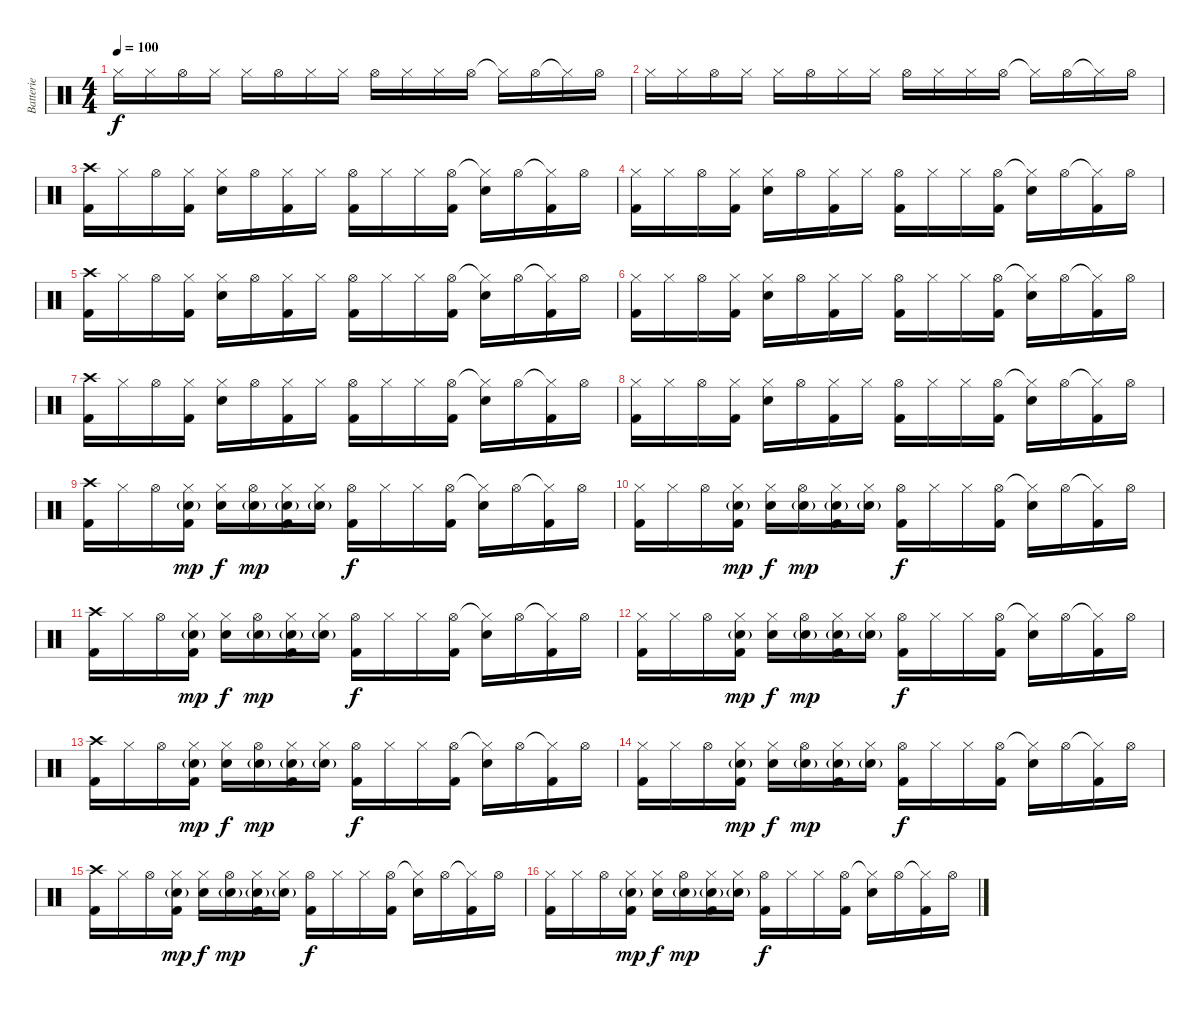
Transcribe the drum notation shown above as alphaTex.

\track ("Batterie" "Batterie") {instrument percussion}
\staff {score}
\articulation defaults
\ts (4 4)
\tempo 100
\clef neutral
\ks c "Hi-Hat (closed)".16{dy f} "Hi-Hat (closed)".16 "Hi-Hat (open)".16 "Hi-Hat (closed)".16 "Hi-Hat (closed)".16 "Hi-Hat (open)".16 "Hi-Hat (closed)".16 "Hi-Hat (closed)".16 "Hi-Hat (open)".16 "Hi-Hat (closed)".16 "Hi-Hat (closed)".16 "Hi-Hat (open)".16 "Hi-Hat (closed)"{t}.16 "Hi-Hat (open)".16 "Hi-Hat (closed)"{t}.16 "Hi-Hat (open)".16
|
"Hi-Hat (closed)".16 "Hi-Hat (closed)".16 "Hi-Hat (open)".16 "Hi-Hat (closed)".16 "Hi-Hat (closed)".16 "Hi-Hat (open)".16 "Hi-Hat (closed)".16 "Hi-Hat (closed)".16 "Hi-Hat (open)".16 "Hi-Hat (closed)".16 "Hi-Hat (closed)".16 "Hi-Hat (open)".16 "Hi-Hat (closed)"{t}.16 "Hi-Hat (open)".16 "Hi-Hat (closed)"{t}.16 "Hi-Hat (open)".16 |
("Crash high (hit)" "Kick (hit) 2").16 "Hi-Hat (closed)".16 "Hi-Hat (open)".16 ("Hi-Hat (closed)" "Kick (hit) 2").16 ("Hi-Hat (closed)" "Snare (hit) 2").16 "Hi-Hat (open)".16 ("Hi-Hat (closed)" "Kick (hit) 2").16 "Hi-Hat (closed)".16 ("Hi-Hat (open)" "Kick (hit) 2").16 "Hi-Hat (closed)".16 "Hi-Hat (closed)".16 ("Hi-Hat (open)" "Kick (hit) 2").16 ("Hi-Hat (closed)"{t} "Snare (hit) 2").16 "Hi-Hat (open)".16 ("Hi-Hat (closed)"{t} "Kick (hit) 2").16 "Hi-Hat (open)".16 |
("Hi-Hat (closed)" "Kick (hit) 2").16 "Hi-Hat (closed)".16 "Hi-Hat (open)".16 ("Hi-Hat (closed)" "Kick (hit) 2").16 ("Hi-Hat (closed)" "Snare (hit) 2").16 "Hi-Hat (open)".16 ("Hi-Hat (closed)" "Kick (hit) 2").16 "Hi-Hat (closed)".16 ("Hi-Hat (open)" "Kick (hit) 2").16 "Hi-Hat (closed)".16 "Hi-Hat (closed)".16 ("Hi-Hat (open)" "Kick (hit) 2").16 ("Hi-Hat (closed)"{t} "Snare (hit) 2").16 "Hi-Hat (open)".16 ("Hi-Hat (closed)"{t} "Kick (hit) 2").16 "Hi-Hat (open)".16 |
("Crash high (hit)" "Kick (hit) 2").16 "Hi-Hat (closed)".16 "Hi-Hat (open)".16 ("Hi-Hat (closed)" "Kick (hit) 2").16 ("Hi-Hat (closed)" "Snare (hit) 2").16 "Hi-Hat (open)".16 ("Hi-Hat (closed)" "Kick (hit) 2").16 "Hi-Hat (closed)".16 ("Hi-Hat (open)" "Kick (hit) 2").16 "Hi-Hat (closed)".16 "Hi-Hat (closed)".16 ("Hi-Hat (open)" "Kick (hit) 2").16 ("Hi-Hat (closed)"{t} "Snare (hit) 2").16 "Hi-Hat (open)".16 ("Hi-Hat (closed)"{t} "Kick (hit) 2").16 "Hi-Hat (open)".16 |
("Hi-Hat (closed)" "Kick (hit) 2").16 "Hi-Hat (closed)".16 "Hi-Hat (open)".16 ("Hi-Hat (closed)" "Kick (hit) 2").16 ("Hi-Hat (closed)" "Snare (hit) 2").16 "Hi-Hat (open)".16 ("Hi-Hat (closed)" "Kick (hit) 2").16 "Hi-Hat (closed)".16 ("Hi-Hat (open)" "Kick (hit) 2").16 "Hi-Hat (closed)".16 "Hi-Hat (closed)".16 ("Hi-Hat (open)" "Kick (hit) 2").16 ("Hi-Hat (closed)"{t} "Snare (hit) 2").16 "Hi-Hat (open)".16 ("Hi-Hat (closed)"{t} "Kick (hit) 2").16 "Hi-Hat (open)".16 |
("Crash high (hit)" "Kick (hit) 2").16 "Hi-Hat (closed)".16 "Hi-Hat (open)".16 ("Hi-Hat (closed)" "Kick (hit) 2").16 ("Hi-Hat (closed)" "Snare (hit) 2").16 "Hi-Hat (open)".16 ("Hi-Hat (closed)" "Kick (hit) 2").16 "Hi-Hat (closed)".16 ("Hi-Hat (open)" "Kick (hit) 2").16 "Hi-Hat (closed)".16 "Hi-Hat (closed)".16 ("Hi-Hat (open)" "Kick (hit) 2").16 ("Hi-Hat (closed)"{t} "Snare (hit) 2").16 "Hi-Hat (open)".16 ("Hi-Hat (closed)"{t} "Kick (hit) 2").16 "Hi-Hat (open)".16 |
("Hi-Hat (closed)" "Kick (hit) 2").16 "Hi-Hat (closed)".16 "Hi-Hat (open)".16 ("Hi-Hat (closed)" "Kick (hit) 2").16 ("Hi-Hat (closed)" "Snare (hit) 2").16 "Hi-Hat (open)".16 ("Hi-Hat (closed)" "Kick (hit) 2").16 "Hi-Hat (closed)".16 ("Hi-Hat (open)" "Kick (hit) 2").16 "Hi-Hat (closed)".16 "Hi-Hat (closed)".16 ("Hi-Hat (open)" "Kick (hit) 2").16 ("Hi-Hat (closed)"{t} "Snare (hit) 2").16 "Hi-Hat (open)".16 ("Hi-Hat (closed)"{t} "Kick (hit) 2").16 "Hi-Hat (open)".16 |
("Crash high (hit)" "Kick (hit) 2").16 "Hi-Hat (closed)".16 "Hi-Hat (open)".16 ("Hi-Hat (closed)" "Snare (hit) 2"{g} "Kick (hit) 2").16{dy mp} ("Hi-Hat (closed)" "Snare (hit) 2").16{dy f} ("Hi-Hat (open)" "Snare (hit) 2"{g}).16{dy mp} ("Hi-Hat (closed)" "Snare (hit) 2"{g} "Kick (hit) 2").16 ("Hi-Hat (closed)" "Snare (hit) 2"{g}).16 ("Hi-Hat (open)" "Kick (hit) 2").16{dy f} "Hi-Hat (closed)".16 "Hi-Hat (closed)".16 ("Hi-Hat (open)" "Kick (hit) 2").16 ("Hi-Hat (closed)"{t} "Snare (hit) 2").16 "Hi-Hat (open)".16 ("Hi-Hat (closed)"{t} "Kick (hit) 2").16 "Hi-Hat (open)".16 |
("Hi-Hat (closed)" "Kick (hit) 2").16 "Hi-Hat (closed)".16 "Hi-Hat (open)".16 ("Hi-Hat (closed)" "Snare (hit) 2"{g} "Kick (hit) 2").16{dy mp} ("Hi-Hat (closed)" "Snare (hit) 2").16{dy f} ("Hi-Hat (open)" "Snare (hit) 2"{g}).16{dy mp} ("Hi-Hat (closed)" "Snare (hit) 2"{g} "Kick (hit) 2").16 ("Hi-Hat (closed)" "Snare (hit) 2"{g}).16 ("Hi-Hat (open)" "Kick (hit) 2").16{dy f} "Hi-Hat (closed)".16 "Hi-Hat (closed)".16 ("Hi-Hat (open)" "Kick (hit) 2").16 ("Hi-Hat (closed)"{t} "Snare (hit) 2").16 "Hi-Hat (open)".16 ("Hi-Hat (closed)"{t} "Kick (hit) 2").16 "Hi-Hat (open)".16 |
("Crash high (hit)" "Kick (hit) 2").16 "Hi-Hat (closed)".16 "Hi-Hat (open)".16 ("Hi-Hat (closed)" "Snare (hit) 2"{g} "Kick (hit) 2").16{dy mp} ("Hi-Hat (closed)" "Snare (hit) 2").16{dy f} ("Hi-Hat (open)" "Snare (hit) 2"{g}).16{dy mp} ("Hi-Hat (closed)" "Snare (hit) 2"{g} "Kick (hit) 2").16 ("Hi-Hat (closed)" "Snare (hit) 2"{g}).16 ("Hi-Hat (open)" "Kick (hit) 2").16{dy f} "Hi-Hat (closed)".16 "Hi-Hat (closed)".16 ("Hi-Hat (open)" "Kick (hit) 2").16 ("Hi-Hat (closed)"{t} "Snare (hit) 2").16 "Hi-Hat (open)".16 ("Hi-Hat (closed)"{t} "Kick (hit) 2").16 "Hi-Hat (open)".16 |
("Hi-Hat (closed)" "Kick (hit) 2").16 "Hi-Hat (closed)".16 "Hi-Hat (open)".16 ("Hi-Hat (closed)" "Snare (hit) 2"{g} "Kick (hit) 2").16{dy mp} ("Hi-Hat (closed)" "Snare (hit) 2").16{dy f} ("Hi-Hat (open)" "Snare (hit) 2"{g}).16{dy mp} ("Hi-Hat (closed)" "Snare (hit) 2"{g} "Kick (hit) 2").16 ("Hi-Hat (closed)" "Snare (hit) 2"{g}).16 ("Hi-Hat (open)" "Kick (hit) 2").16{dy f} "Hi-Hat (closed)".16 "Hi-Hat (closed)".16 ("Hi-Hat (open)" "Kick (hit) 2").16 ("Hi-Hat (closed)"{t} "Snare (hit) 2").16 "Hi-Hat (open)".16 ("Hi-Hat (closed)"{t} "Kick (hit) 2").16 "Hi-Hat (open)".16 |
("Crash high (hit)" "Kick (hit) 2").16 "Hi-Hat (closed)".16 "Hi-Hat (open)".16 ("Hi-Hat (closed)" "Snare (hit) 2"{g} "Kick (hit) 2").16{dy mp} ("Hi-Hat (closed)" "Snare (hit) 2").16{dy f} ("Hi-Hat (open)" "Snare (hit) 2"{g}).16{dy mp} ("Hi-Hat (closed)" "Snare (hit) 2"{g} "Kick (hit) 2").16 ("Hi-Hat (closed)" "Snare (hit) 2"{g}).16 ("Hi-Hat (open)" "Kick (hit) 2").16{dy f} "Hi-Hat (closed)".16 "Hi-Hat (closed)".16 ("Hi-Hat (open)" "Kick (hit) 2").16 ("Hi-Hat (closed)"{t} "Snare (hit) 2").16 "Hi-Hat (open)".16 ("Hi-Hat (closed)"{t} "Kick (hit) 2").16 "Hi-Hat (open)".16 |
("Hi-Hat (closed)" "Kick (hit) 2").16 "Hi-Hat (closed)".16 "Hi-Hat (open)".16 ("Hi-Hat (closed)" "Snare (hit) 2"{g} "Kick (hit) 2").16{dy mp} ("Hi-Hat (closed)" "Snare (hit) 2").16{dy f} ("Hi-Hat (open)" "Snare (hit) 2"{g}).16{dy mp} ("Hi-Hat (closed)" "Snare (hit) 2"{g} "Kick (hit) 2").16 ("Hi-Hat (closed)" "Snare (hit) 2"{g}).16 ("Hi-Hat (open)" "Kick (hit) 2").16{dy f} "Hi-Hat (closed)".16 "Hi-Hat (closed)".16 ("Hi-Hat (open)" "Kick (hit) 2").16 ("Hi-Hat (closed)"{t} "Snare (hit) 2").16 "Hi-Hat (open)".16 ("Hi-Hat (closed)"{t} "Kick (hit) 2").16 "Hi-Hat (open)".16 |
("Crash high (hit)" "Kick (hit) 2").16 "Hi-Hat (closed)".16 "Hi-Hat (open)".16 ("Hi-Hat (closed)" "Snare (hit) 2"{g} "Kick (hit) 2").16{dy mp} ("Hi-Hat (closed)" "Snare (hit) 2").16{dy f} ("Hi-Hat (open)" "Snare (hit) 2"{g}).16{dy mp} ("Hi-Hat (closed)" "Snare (hit) 2"{g} "Kick (hit) 2").16 ("Hi-Hat (closed)" "Snare (hit) 2"{g}).16 ("Hi-Hat (open)" "Kick (hit) 2").16{dy f} "Hi-Hat (closed)".16 "Hi-Hat (closed)".16 ("Hi-Hat (open)" "Kick (hit) 2").16 ("Hi-Hat (closed)"{t} "Snare (hit) 2").16 "Hi-Hat (open)".16 ("Hi-Hat (closed)"{t} "Kick (hit) 2").16 "Hi-Hat (open)".16 |
("Hi-Hat (closed)" "Kick (hit) 2").16 "Hi-Hat (closed)".16 "Hi-Hat (open)".16 ("Hi-Hat (closed)" "Snare (hit) 2"{g} "Kick (hit) 2").16{dy mp} ("Hi-Hat (closed)" "Snare (hit) 2").16{dy f} ("Hi-Hat (open)" "Snare (hit) 2"{g}).16{dy mp} ("Hi-Hat (closed)" "Snare (hit) 2"{g} "Kick (hit) 2").16 ("Hi-Hat (closed)" "Snare (hit) 2"{g}).16 ("Hi-Hat (open)" "Kick (hit) 2").16{dy f} "Hi-Hat (closed)".16 "Hi-Hat (closed)".16 ("Hi-Hat (open)" "Kick (hit) 2").16 ("Hi-Hat (closed)"{t} "Snare (hit) 2").16 "Hi-Hat (open)".16 ("Hi-Hat (closed)"{t} "Kick (hit) 2").16 "Hi-Hat (open)".16
